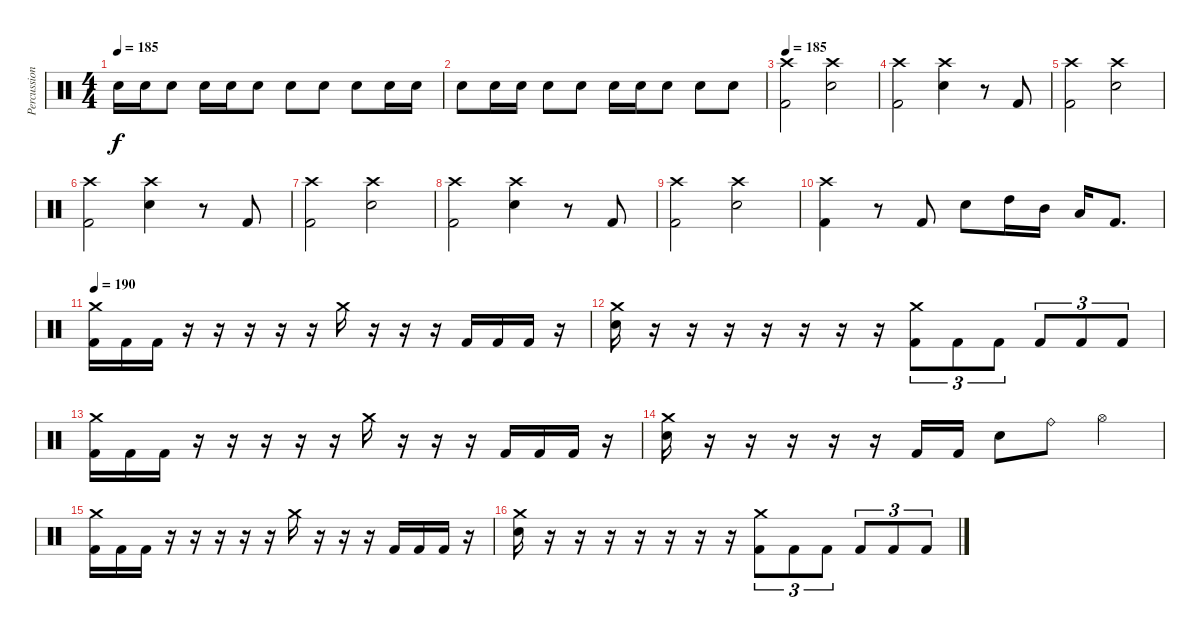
\track ("Percussion" "Percussion") {instrument percussion}
\staff {score}
\articulation defaults
\ts (4 4)
\tempo 185
\clef neutral
\ks c "Electric Snare (hit)".16{dy f} "Electric Snare (hit)".16 "Electric Snare (hit)".8 "Electric Snare (hit)".16 "Electric Snare (hit)".16 "Electric Snare (hit)".8 "Electric Snare (hit)".8 "Electric Snare (hit)".8 "Electric Snare (hit)".8 "Electric Snare (hit)".16 "Electric Snare (hit)".16
|
"Electric Snare (hit)".8 "Electric Snare (hit)".16 "Electric Snare (hit)".16 "Electric Snare (hit)".8 "Electric Snare (hit)".8 "Electric Snare (hit)".16 "Electric Snare (hit)".16 "Electric Snare (hit)".8 "Electric Snare (hit)".8 "Electric Snare (hit)".8 |
\tempo 185
("Crash high (hit)" "Kick (hit) 2").2 ("Crash high (hit)" "Electric Snare (hit)").2 |
("Crash high (hit)" "Kick (hit) 2").2 ("Crash high (hit)" "Electric Snare (hit)").4 r.8 "Kick (hit) 2".8 |
("Crash high (hit)" "Kick (hit) 2").2 ("Crash high (hit)" "Electric Snare (hit)").2 |
("Crash high (hit)" "Kick (hit) 2").2 ("Crash high (hit)" "Electric Snare (hit)").4 r.8 "Kick (hit) 2".8 |
("Crash high (hit)" "Kick (hit) 2").2 ("Crash high (hit)" "Electric Snare (hit)").2 |
("Crash high (hit)" "Kick (hit) 2").2 ("Crash high (hit)" "Electric Snare (hit)").4 r.8 "Kick (hit) 2".8 |
("Crash high (hit)" "Kick (hit) 2").2 ("Crash high (hit)" "Electric Snare (hit)").2 |
("Crash high (hit)" "Kick (hit) 2").4 r.8 "Kick (hit) 2".8 "Electric Snare (hit)".8 "High Tom (hit)".16 "Mid Tom (hit)".16 "Low Tom (hit)".16 "Kick (hit) 2".8{d} |
\tempo 190
("Crash medium (hit)" "Kick (hit) 2").16 "Kick (hit) 2".16 "Kick (hit) 2".16 r.16 r.16 r.16 r.16 r.16 "Crash medium (hit)".16 r.16 r.16 r.16 "Kick (hit) 2".16 "Kick (hit) 2".16 "Kick (hit) 2".16 r.16 |
("Crash medium (hit)" "Electric Snare (hit)").16 r.16 r.16 r.16 r.16 r.16 r.16 r.16 ("Crash medium (hit)" "Kick (hit) 2").8{tu (3 2)} "Kick (hit) 2".8{tu (3 2)} "Kick (hit) 2".8{tu (3 2)} "Kick (hit) 2".8{tu (3 2)} "Kick (hit) 2".8{tu (3 2)} "Kick (hit) 2".8{tu (3 2)} |
("Crash medium (hit)" "Kick (hit) 2").16 "Kick (hit) 2".16 "Kick (hit) 2".16 r.16 r.16 r.16 r.16 r.16 "Crash medium (hit)".16 r.16 r.16 r.16 "Kick (hit) 2".16 "Kick (hit) 2".16 "Kick (hit) 2".16 r.16 |
("Crash medium (hit)" "Electric Snare (hit)").16 r.16 r.16 r.16 r.16 r.16 "Kick (hit) 2".16 "Kick (hit) 2".16 "Electric Snare (hit)".8 "Ride (bell)".8 "Hi-Hat (open)".4 |
("Crash medium (hit)" "Kick (hit) 2").16 "Kick (hit) 2".16 "Kick (hit) 2".16 r.16 r.16 r.16 r.16 r.16 "Crash medium (hit)".16 r.16 r.16 r.16 "Kick (hit) 2".16 "Kick (hit) 2".16 "Kick (hit) 2".16 r.16 |
("Crash medium (hit)" "Electric Snare (hit)").16 r.16 r.16 r.16 r.16 r.16 r.16 r.16 ("Crash medium (hit)" "Kick (hit) 2").8{tu (3 2)} "Kick (hit) 2".8{tu (3 2)} "Kick (hit) 2".8{tu (3 2)} "Kick (hit) 2".8{tu (3 2)} "Kick (hit) 2".8{tu (3 2)} "Kick (hit) 2".8{tu (3 2)}
